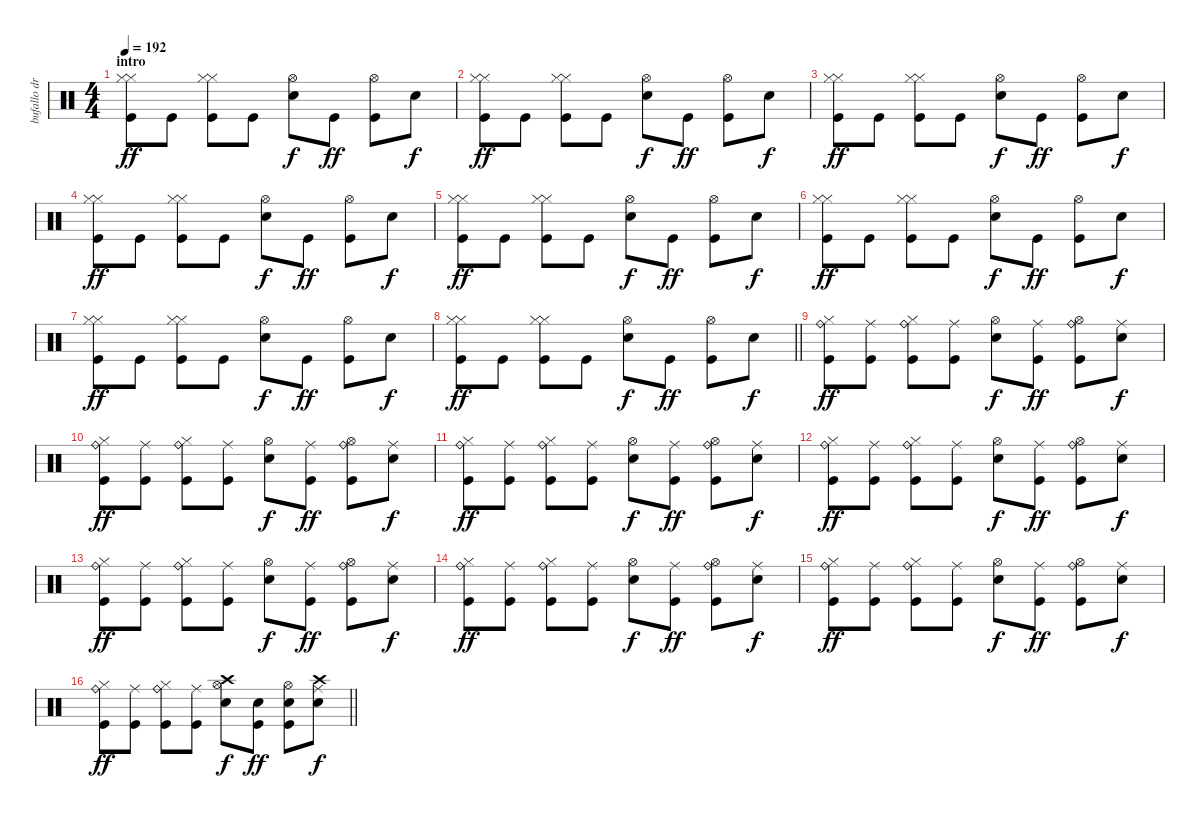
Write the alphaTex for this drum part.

\track ("bufallo drums" "bufallo dr") {instrument percussion}
\staff {score}
\articulation defaults
\ts (4 4)
\section ("" "intro")
\tempo 192
\clef neutral
\ks c
("Hi-Hat (closed)" "Hi-Hat (closed)" "Kick (hit)").8{dy ff} "Kick (hit)".8 ("Hi-Hat (closed)" "Hi-Hat (closed)" "Kick (hit)").8 "Kick (hit)".8 ("Hi-Hat (open)" "Electric Snare (hit)").8{dy f} "Kick (hit)".8{dy ff} ("Hi-Hat (open)" "Kick (hit)").8 "Electric Snare (hit)".8{dy f} |
("Hi-Hat (closed)" "Hi-Hat (closed)" "Kick (hit)").8{dy ff} "Kick (hit)".8 ("Hi-Hat (closed)" "Hi-Hat (closed)" "Kick (hit)").8 "Kick (hit)".8 ("Hi-Hat (open)" "Electric Snare (hit)").8{dy f} "Kick (hit)".8{dy ff} ("Hi-Hat (open)" "Kick (hit)").8 "Electric Snare (hit)".8{dy f} |
("Hi-Hat (closed)" "Hi-Hat (closed)" "Kick (hit)").8{dy ff} "Kick (hit)".8 ("Hi-Hat (closed)" "Hi-Hat (closed)" "Kick (hit)").8 "Kick (hit)".8 ("Hi-Hat (open)" "Electric Snare (hit)").8{dy f} "Kick (hit)".8{dy ff} ("Hi-Hat (open)" "Kick (hit)").8 "Electric Snare (hit)".8{dy f} |
("Hi-Hat (closed)" "Hi-Hat (closed)" "Kick (hit)").8{dy ff} "Kick (hit)".8 ("Hi-Hat (closed)" "Hi-Hat (closed)" "Kick (hit)").8 "Kick (hit)".8 ("Hi-Hat (open)" "Electric Snare (hit)").8{dy f} "Kick (hit)".8{dy ff} ("Hi-Hat (open)" "Kick (hit)").8 "Electric Snare (hit)".8{dy f} |
("Hi-Hat (closed)" "Hi-Hat (closed)" "Kick (hit)").8{dy ff} "Kick (hit)".8 ("Hi-Hat (closed)" "Hi-Hat (closed)" "Kick (hit)").8 "Kick (hit)".8 ("Hi-Hat (open)" "Electric Snare (hit)").8{dy f} "Kick (hit)".8{dy ff} ("Hi-Hat (open)" "Kick (hit)").8 "Electric Snare (hit)".8{dy f} |
("Hi-Hat (closed)" "Hi-Hat (closed)" "Kick (hit)").8{dy ff} "Kick (hit)".8 ("Hi-Hat (closed)" "Hi-Hat (closed)" "Kick (hit)").8 "Kick (hit)".8 ("Hi-Hat (open)" "Electric Snare (hit)").8{dy f} "Kick (hit)".8{dy ff} ("Hi-Hat (open)" "Kick (hit)").8 "Electric Snare (hit)".8{dy f} |
("Hi-Hat (closed)" "Hi-Hat (closed)" "Kick (hit)").8{dy ff} "Kick (hit)".8 ("Hi-Hat (closed)" "Hi-Hat (closed)" "Kick (hit)").8 "Kick (hit)".8 ("Hi-Hat (open)" "Electric Snare (hit)").8{dy f} "Kick (hit)".8{dy ff} ("Hi-Hat (open)" "Kick (hit)").8 "Electric Snare (hit)".8{dy f} |
\barLineRight lightlight
("Hi-Hat (closed)" "Hi-Hat (closed)" "Kick (hit)").8{dy ff} "Kick (hit)".8 ("Hi-Hat (closed)" "Hi-Hat (closed)" "Kick (hit)").8 "Kick (hit)".8 ("Hi-Hat (open)" "Electric Snare (hit)").8{dy f} "Kick (hit)".8{dy ff} ("Hi-Hat (open)" "Kick (hit)").8 "Electric Snare (hit)".8{dy f} |
("Hi-Hat (closed)" "Ride (bell)" "Kick (hit)").8{dy ff} ("Ride (middle)" "Kick (hit)").8 ("Hi-Hat (closed)" "Ride (bell)" "Kick (hit)").8 ("Ride (middle)" "Kick (hit)").8 ("Hi-Hat (open)" "Electric Snare (hit)").8{dy f} ("Ride (middle)" "Kick (hit)").8{dy ff} ("Hi-Hat (open)" "Ride (bell)" "Kick (hit)").8 ("Ride (middle)" "Electric Snare (hit)").8{dy f} |
("Hi-Hat (closed)" "Ride (bell)" "Kick (hit)").8{dy ff} ("Ride (middle)" "Kick (hit)").8 ("Hi-Hat (closed)" "Ride (bell)" "Kick (hit)").8 ("Ride (middle)" "Kick (hit)").8 ("Hi-Hat (open)" "Electric Snare (hit)").8{dy f} ("Ride (middle)" "Kick (hit)").8{dy ff} ("Hi-Hat (open)" "Ride (bell)" "Kick (hit)").8 ("Ride (middle)" "Electric Snare (hit)").8{dy f} |
("Hi-Hat (closed)" "Ride (bell)" "Kick (hit)").8{dy ff} ("Ride (middle)" "Kick (hit)").8 ("Hi-Hat (closed)" "Ride (bell)" "Kick (hit)").8 ("Ride (middle)" "Kick (hit)").8 ("Hi-Hat (open)" "Electric Snare (hit)").8{dy f} ("Ride (middle)" "Kick (hit)").8{dy ff} ("Hi-Hat (open)" "Ride (bell)" "Kick (hit)").8 ("Ride (middle)" "Electric Snare (hit)").8{dy f} |
("Hi-Hat (closed)" "Ride (bell)" "Kick (hit)").8{dy ff} ("Ride (middle)" "Kick (hit)").8 ("Hi-Hat (closed)" "Ride (bell)" "Kick (hit)").8 ("Ride (middle)" "Kick (hit)").8 ("Hi-Hat (open)" "Electric Snare (hit)").8{dy f} ("Ride (middle)" "Kick (hit)").8{dy ff} ("Hi-Hat (open)" "Ride (bell)" "Kick (hit)").8 ("Ride (middle)" "Electric Snare (hit)").8{dy f} |
("Hi-Hat (closed)" "Ride (bell)" "Kick (hit)").8{dy ff} ("Ride (middle)" "Kick (hit)").8 ("Hi-Hat (closed)" "Ride (bell)" "Kick (hit)").8 ("Ride (middle)" "Kick (hit)").8 ("Hi-Hat (open)" "Electric Snare (hit)").8{dy f} ("Ride (middle)" "Kick (hit)").8{dy ff} ("Hi-Hat (open)" "Ride (bell)" "Kick (hit)").8 ("Ride (middle)" "Electric Snare (hit)").8{dy f} |
("Hi-Hat (closed)" "Ride (bell)" "Kick (hit)").8{dy ff} ("Ride (middle)" "Kick (hit)").8 ("Hi-Hat (closed)" "Ride (bell)" "Kick (hit)").8 ("Ride (middle)" "Kick (hit)").8 ("Hi-Hat (open)" "Electric Snare (hit)").8{dy f} ("Ride (middle)" "Kick (hit)").8{dy ff} ("Hi-Hat (open)" "Ride (bell)" "Kick (hit)").8 ("Ride (middle)" "Electric Snare (hit)").8{dy f} |
("Hi-Hat (closed)" "Ride (bell)" "Kick (hit)").8{dy ff} ("Ride (middle)" "Kick (hit)").8 ("Hi-Hat (closed)" "Ride (bell)" "Kick (hit)").8 ("Ride (middle)" "Kick (hit)").8 ("Hi-Hat (open)" "Electric Snare (hit)").8{dy f} ("Ride (middle)" "Kick (hit)").8{dy ff} ("Hi-Hat (open)" "Ride (bell)" "Kick (hit)").8 ("Ride (middle)" "Electric Snare (hit)").8{dy f} |
\barLineRight lightlight
("Hi-Hat (closed)" "Ride (bell)" "Kick (hit)").8{dy ff} ("Ride (middle)" "Kick (hit)").8 ("Hi-Hat (closed)" "Ride (bell)" "Kick (hit)").8 ("Ride (middle)" "Kick (hit)").8 ("Hi-Hat (open)" "Electric Snare (hit)" "Crash high (hit)").8{dy f} ("Electric Snare (hit)" "Kick (hit)").8{dy ff} ("Hi-Hat (open)" "Electric Snare (hit)" "Kick (hit)").8 ("Ride (middle)" "Electric Snare (hit)" "Crash high (hit)").8{dy f}
